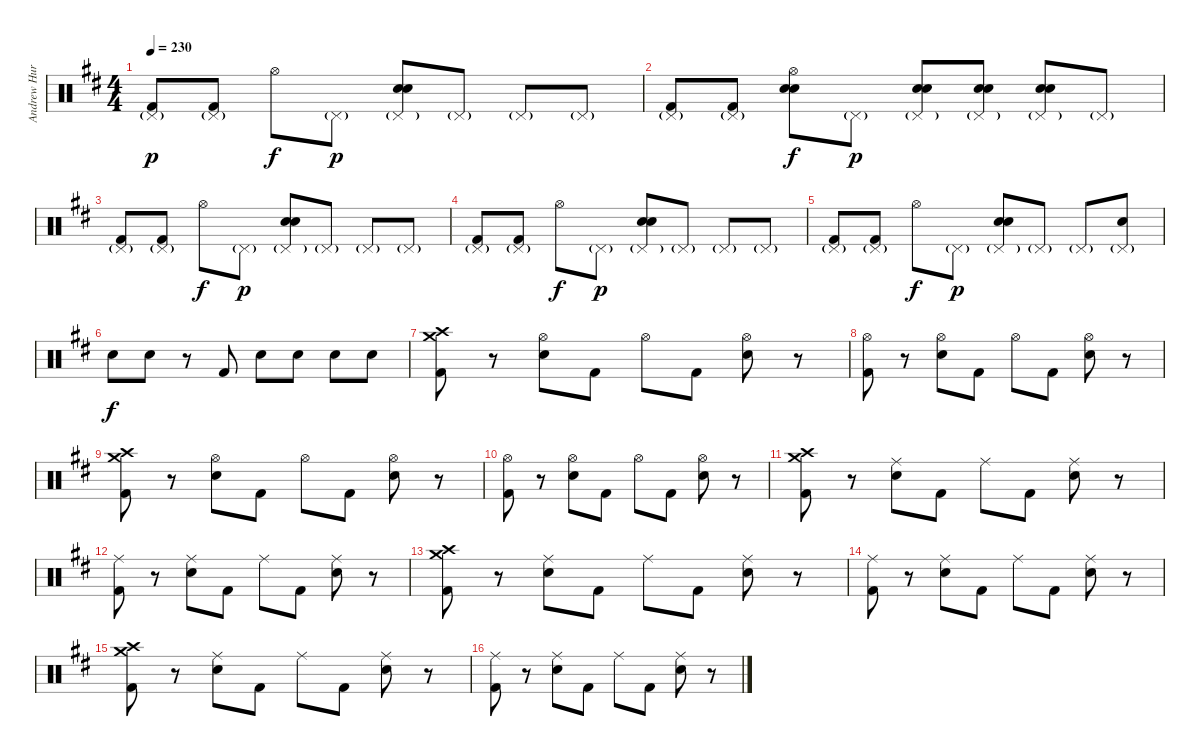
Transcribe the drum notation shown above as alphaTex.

\track ("Andrew Hurley" "Andrew Hur") {instrument percussion}
\staff {score}
\articulation defaults
\ts (4 4)
\tempo 230
\clef neutral
\ks d
("Pedal Hi-Hat (hit)"{g} "Kick (hit) 2").8{dy p} ("Pedal Hi-Hat (hit)"{g} "Kick (hit) 2").8 "Hi-Hat (open)".8{dy f} "Pedal Hi-Hat (hit)"{g}.8{dy p} ("Pedal Hi-Hat (hit)"{g} "Hand Clap (hit)" "Electric Snare (hit)").8 "Pedal Hi-Hat (hit)"{g}.8 "Pedal Hi-Hat (hit)"{g}.8 "Pedal Hi-Hat (hit)"{g}.8 |
("Pedal Hi-Hat (hit)"{g} "Kick (hit) 2").8 ("Pedal Hi-Hat (hit)"{g} "Kick (hit) 2").8 ("Hi-Hat (open)" "Hand Clap (hit)" "Electric Snare (hit)").8{dy f} "Pedal Hi-Hat (hit)"{g}.8{dy p} ("Pedal Hi-Hat (hit)"{g} "Hand Clap (hit)" "Electric Snare (hit)").8 ("Pedal Hi-Hat (hit)"{g} "Hand Clap (hit)" "Electric Snare (hit)").8 ("Pedal Hi-Hat (hit)"{g} "Hand Clap (hit)" "Electric Snare (hit)").8 "Pedal Hi-Hat (hit)"{g}.8 |
("Pedal Hi-Hat (hit)"{g} "Kick (hit) 2").8 ("Pedal Hi-Hat (hit)"{g} "Kick (hit) 2").8 "Hi-Hat (open)".8{dy f} "Pedal Hi-Hat (hit)"{g}.8{dy p} ("Pedal Hi-Hat (hit)"{g} "Hand Clap (hit)" "Electric Snare (hit)").8 "Pedal Hi-Hat (hit)"{g}.8 "Pedal Hi-Hat (hit)"{g}.8 "Pedal Hi-Hat (hit)"{g}.8 |
("Pedal Hi-Hat (hit)"{g} "Kick (hit) 2").8 ("Pedal Hi-Hat (hit)"{g} "Kick (hit) 2").8 "Hi-Hat (open)".8{dy f} "Pedal Hi-Hat (hit)"{g}.8{dy p} ("Pedal Hi-Hat (hit)"{g} "Hand Clap (hit)" "Electric Snare (hit)").8 "Pedal Hi-Hat (hit)"{g}.8 "Pedal Hi-Hat (hit)"{g}.8 "Pedal Hi-Hat (hit)"{g}.8 |
("Pedal Hi-Hat (hit)"{g} "Kick (hit) 2").8 ("Pedal Hi-Hat (hit)"{g} "Kick (hit) 2").8 "Hi-Hat (open)".8{dy f} "Pedal Hi-Hat (hit)"{g}.8{dy p} ("Pedal Hi-Hat (hit)"{g} "Hand Clap (hit)" "Electric Snare (hit)").8 "Pedal Hi-Hat (hit)"{g}.8 "Pedal Hi-Hat (hit)"{g}.8 ("Pedal Hi-Hat (hit)"{g} "Electric Snare (hit)").8 |
"Electric Snare (hit)".8{dy f} "Electric Snare (hit)".8 r.8 "Kick (hit) 2".8 "Electric Snare (hit)".8 "Electric Snare (hit)".8 "Electric Snare (hit)".8 "Electric Snare (hit)".8 |
("Crash high (hit)" "Crash medium (hit)" "Kick (hit) 2").8 r.8 ("Hi-Hat (open)" "Electric Snare (hit)").8 "Kick (hit) 2".8 "Hi-Hat (open)".8 "Kick (hit) 2".8 ("Hi-Hat (open)" "Electric Snare (hit)").8 r.8 |
("Hi-Hat (open)" "Kick (hit) 2").8 r.8 ("Hi-Hat (open)" "Electric Snare (hit)").8 "Kick (hit) 2".8 "Hi-Hat (open)".8 "Kick (hit) 2".8 ("Hi-Hat (open)" "Electric Snare (hit)").8 r.8 |
("Crash high (hit)" "Crash medium (hit)" "Kick (hit) 2").8 r.8 ("Hi-Hat (open)" "Electric Snare (hit)").8 "Kick (hit) 2".8 "Hi-Hat (open)".8 "Kick (hit) 2".8 ("Hi-Hat (open)" "Electric Snare (hit)").8 r.8 |
("Hi-Hat (open)" "Kick (hit) 2").8 r.8 ("Hi-Hat (open)" "Electric Snare (hit)").8 "Kick (hit) 2".8 "Hi-Hat (open)".8 "Kick (hit) 2".8 ("Hi-Hat (open)" "Electric Snare (hit)").8 r.8 |
("Crash high (hit)" "Crash medium (hit)" "Kick (hit) 2").8 r.8 ("Ride (middle)" "Electric Snare (hit)").8 "Kick (hit) 2".8 "Ride (middle)".8 "Kick (hit) 2".8 ("Ride (middle)" "Electric Snare (hit)").8 r.8 |
("Ride (middle)" "Kick (hit) 2").8 r.8 ("Ride (middle)" "Electric Snare (hit)").8 "Kick (hit) 2".8 "Ride (middle)".8 "Kick (hit) 2".8 ("Ride (middle)" "Electric Snare (hit)").8 r.8 |
("Crash high (hit)" "Crash medium (hit)" "Kick (hit) 2").8 r.8 ("Ride (middle)" "Electric Snare (hit)").8 "Kick (hit) 2".8 "Ride (middle)".8 "Kick (hit) 2".8 ("Ride (middle)" "Electric Snare (hit)").8 r.8 |
("Ride (middle)" "Kick (hit) 2").8 r.8 ("Ride (middle)" "Electric Snare (hit)").8 "Kick (hit) 2".8 "Ride (middle)".8 "Kick (hit) 2".8 ("Ride (middle)" "Electric Snare (hit)").8 r.8 |
("Crash high (hit)" "Crash medium (hit)" "Kick (hit) 2").8 r.8 ("Ride (middle)" "Electric Snare (hit)").8 "Kick (hit) 2".8 "Ride (middle)".8 "Kick (hit) 2".8 ("Ride (middle)" "Electric Snare (hit)").8 r.8 |
("Ride (middle)" "Kick (hit) 2").8 r.8 ("Ride (middle)" "Electric Snare (hit)").8 "Kick (hit) 2".8 "Ride (middle)".8 "Kick (hit) 2".8 ("Ride (middle)" "Electric Snare (hit)").8 r.8
